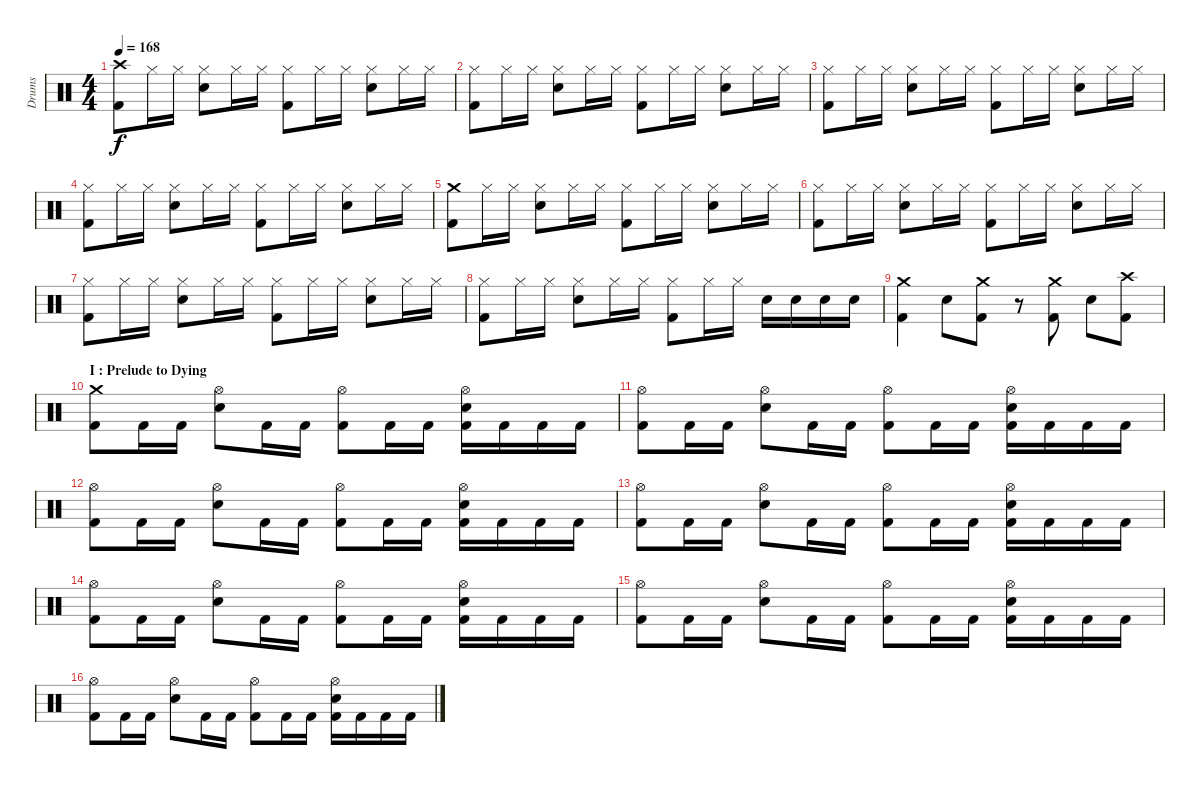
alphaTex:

\track ("Drums" "Drums") {instrument percussion}
\staff {score}
\articulation defaults
\ts (4 4)
\section ("" "")
\tempo 168
\clef neutral
\ks c
("Kick (hit) 2" "Crash high (hit)").8{dy f} "Hi-Hat (closed)".16 "Hi-Hat (closed)".16 ("Electric Snare (hit)" "Hi-Hat (closed)").8 "Hi-Hat (closed)".16 "Hi-Hat (closed)".16 ("Kick (hit) 2" "Hi-Hat (closed)").8 "Hi-Hat (closed)".16 "Hi-Hat (closed)".16 ("Electric Snare (hit)" "Hi-Hat (closed)").8 "Hi-Hat (closed)".16 "Hi-Hat (closed)".16 |
("Kick (hit) 2" "Hi-Hat (closed)").8 "Hi-Hat (closed)".16 "Hi-Hat (closed)".16 ("Electric Snare (hit)" "Hi-Hat (closed)").8 "Hi-Hat (closed)".16 "Hi-Hat (closed)".16 ("Kick (hit) 2" "Hi-Hat (closed)").8 "Hi-Hat (closed)".16 "Hi-Hat (closed)".16 ("Electric Snare (hit)" "Hi-Hat (closed)").8 "Hi-Hat (closed)".16 "Hi-Hat (closed)".16 |
("Kick (hit) 2" "Hi-Hat (closed)").8 "Hi-Hat (closed)".16 "Hi-Hat (closed)".16 ("Electric Snare (hit)" "Hi-Hat (closed)").8 "Hi-Hat (closed)".16 "Hi-Hat (closed)".16 ("Kick (hit) 2" "Hi-Hat (closed)").8 "Hi-Hat (closed)".16 "Hi-Hat (closed)".16 ("Electric Snare (hit)" "Hi-Hat (closed)").8 "Hi-Hat (closed)".16 "Hi-Hat (closed)".16 |
("Kick (hit) 2" "Hi-Hat (closed)").8 "Hi-Hat (closed)".16 "Hi-Hat (closed)".16 ("Electric Snare (hit)" "Hi-Hat (closed)").8 "Hi-Hat (closed)".16 "Hi-Hat (closed)".16 ("Kick (hit) 2" "Hi-Hat (closed)").8 "Hi-Hat (closed)".16 "Hi-Hat (closed)".16 ("Electric Snare (hit)" "Hi-Hat (closed)").8 "Hi-Hat (closed)".16 "Hi-Hat (closed)".16 |
\section ("" "")
("Kick (hit) 2" "Crash medium (hit)").8 "Hi-Hat (closed)".16 "Hi-Hat (closed)".16 ("Electric Snare (hit)" "Hi-Hat (closed)").8 "Hi-Hat (closed)".16 "Hi-Hat (closed)".16 ("Kick (hit) 2" "Hi-Hat (closed)").8 "Hi-Hat (closed)".16 "Hi-Hat (closed)".16 ("Electric Snare (hit)" "Hi-Hat (closed)").8 "Hi-Hat (closed)".16 "Hi-Hat (closed)".16 |
("Kick (hit) 2" "Hi-Hat (closed)").8 "Hi-Hat (closed)".16 "Hi-Hat (closed)".16 ("Electric Snare (hit)" "Hi-Hat (closed)").8 "Hi-Hat (closed)".16 "Hi-Hat (closed)".16 ("Kick (hit) 2" "Hi-Hat (closed)").8 "Hi-Hat (closed)".16 "Hi-Hat (closed)".16 ("Electric Snare (hit)" "Hi-Hat (closed)").8 "Hi-Hat (closed)".16 "Hi-Hat (closed)".16 |
("Kick (hit) 2" "Hi-Hat (closed)").8 "Hi-Hat (closed)".16 "Hi-Hat (closed)".16 ("Electric Snare (hit)" "Hi-Hat (closed)").8 "Hi-Hat (closed)".16 "Hi-Hat (closed)".16 ("Kick (hit) 2" "Hi-Hat (closed)").8 "Hi-Hat (closed)".16 "Hi-Hat (closed)".16 ("Electric Snare (hit)" "Hi-Hat (closed)").8 "Hi-Hat (closed)".16 "Hi-Hat (closed)".16 |
("Kick (hit) 2" "Hi-Hat (closed)").8 "Hi-Hat (closed)".16 "Hi-Hat (closed)".16 ("Electric Snare (hit)" "Hi-Hat (closed)").8 "Hi-Hat (closed)".16 "Hi-Hat (closed)".16 ("Kick (hit) 2" "Hi-Hat (closed)").8 "Hi-Hat (closed)".16 "Hi-Hat (closed)".16 "Electric Snare (hit)".16 "Electric Snare (hit)".16 "Electric Snare (hit)".16 "Electric Snare (hit)".16 |
("Kick (hit) 2" "Crash medium (hit)").4 "Electric Snare (hit)".8 ("Kick (hit) 2" "Crash medium (hit)").8 r.8 ("Kick (hit) 2" "Crash medium (hit)").8 "Electric Snare (hit)".8 ("Kick (hit) 2" "Crash high (hit)").8 |
\section ("" "I : Prelude to Dying")
("Kick (hit) 2" "Crash medium (hit)").8 "Kick (hit) 2".16 "Kick (hit) 2".16 ("Electric Snare (hit)" "Hi-Hat (open)").8 "Kick (hit) 2".16 "Kick (hit) 2".16 ("Kick (hit) 2" "Hi-Hat (open)").8 "Kick (hit) 2".16 "Kick (hit) 2".16 ("Kick (hit) 2" "Electric Snare (hit)" "Hi-Hat (open)").16 "Kick (hit) 2".16 "Kick (hit) 2".16 "Kick (hit) 2".16 |
("Kick (hit) 2" "Hi-Hat (open)").8 "Kick (hit) 2".16 "Kick (hit) 2".16 ("Electric Snare (hit)" "Hi-Hat (open)").8 "Kick (hit) 2".16 "Kick (hit) 2".16 ("Kick (hit) 2" "Hi-Hat (open)").8 "Kick (hit) 2".16 "Kick (hit) 2".16 ("Kick (hit) 2" "Electric Snare (hit)" "Hi-Hat (open)").16 "Kick (hit) 2".16 "Kick (hit) 2".16 "Kick (hit) 2".16 |
("Kick (hit) 2" "Hi-Hat (open)").8 "Kick (hit) 2".16 "Kick (hit) 2".16 ("Electric Snare (hit)" "Hi-Hat (open)").8 "Kick (hit) 2".16 "Kick (hit) 2".16 ("Kick (hit) 2" "Hi-Hat (open)").8 "Kick (hit) 2".16 "Kick (hit) 2".16 ("Kick (hit) 2" "Electric Snare (hit)" "Hi-Hat (open)").16 "Kick (hit) 2".16 "Kick (hit) 2".16 "Kick (hit) 2".16 |
("Kick (hit) 2" "Hi-Hat (open)").8 "Kick (hit) 2".16 "Kick (hit) 2".16 ("Electric Snare (hit)" "Hi-Hat (open)").8 "Kick (hit) 2".16 "Kick (hit) 2".16 ("Kick (hit) 2" "Hi-Hat (open)").8 "Kick (hit) 2".16 "Kick (hit) 2".16 ("Kick (hit) 2" "Electric Snare (hit)" "Hi-Hat (open)").16 "Kick (hit) 2".16 "Kick (hit) 2".16 "Kick (hit) 2".16 |
("Kick (hit) 2" "Hi-Hat (open)").8 "Kick (hit) 2".16 "Kick (hit) 2".16 ("Electric Snare (hit)" "Hi-Hat (open)").8 "Kick (hit) 2".16 "Kick (hit) 2".16 ("Kick (hit) 2" "Hi-Hat (open)").8 "Kick (hit) 2".16 "Kick (hit) 2".16 ("Kick (hit) 2" "Electric Snare (hit)" "Hi-Hat (open)").16 "Kick (hit) 2".16 "Kick (hit) 2".16 "Kick (hit) 2".16 |
("Kick (hit) 2" "Hi-Hat (open)").8 "Kick (hit) 2".16 "Kick (hit) 2".16 ("Electric Snare (hit)" "Hi-Hat (open)").8 "Kick (hit) 2".16 "Kick (hit) 2".16 ("Kick (hit) 2" "Hi-Hat (open)").8 "Kick (hit) 2".16 "Kick (hit) 2".16 ("Kick (hit) 2" "Electric Snare (hit)" "Hi-Hat (open)").16 "Kick (hit) 2".16 "Kick (hit) 2".16 "Kick (hit) 2".16 |
("Kick (hit) 2" "Hi-Hat (open)").8 "Kick (hit) 2".16 "Kick (hit) 2".16 ("Electric Snare (hit)" "Hi-Hat (open)").8 "Kick (hit) 2".16 "Kick (hit) 2".16 ("Kick (hit) 2" "Hi-Hat (open)").8 "Kick (hit) 2".16 "Kick (hit) 2".16 ("Kick (hit) 2" "Electric Snare (hit)" "Hi-Hat (open)").16 "Kick (hit) 2".16 "Kick (hit) 2".16 "Kick (hit) 2".16
